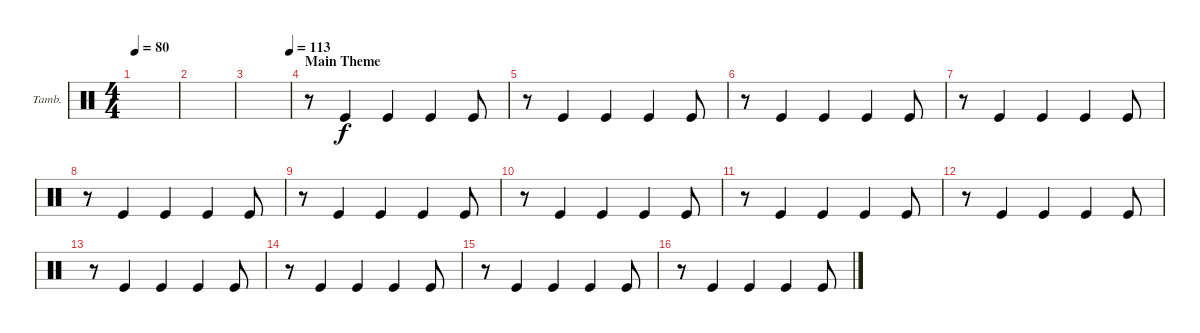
\defaultSystemsLayout 4
\bracketExtendMode groupsimilarinstruments
\firstSystemTrackNameOrientation horizontal
\otherSystemsTrackNameOrientation horizontal
\track ("Tambourine" "Tamb.") {instrument percussion}
\staff {score}
\articulation defaults
\ts (4 4)
\tempo 80
\clef neutral
\scale
0.333333
\ks c
|
\scale
0.333333 |
\tempo (113 1)
\scale
0.333333 |
\section ("" "Main Theme")
\scale
0.333333 r.8 "Kick (hit)".4 "Kick (hit)".4 "Kick (hit)".4 "Kick (hit)".8 |
\scale
0.333333 r.8 "Kick (hit)".4 "Kick (hit)".4 "Kick (hit)".4 "Kick (hit)".8 |
\scale
0.333333 r.8 "Kick (hit)".4 "Kick (hit)".4 "Kick (hit)".4 "Kick (hit)".8 |
\scale
0.333333 r.8 "Kick (hit)".4 "Kick (hit)".4 "Kick (hit)".4 "Kick (hit)".8 |
\scale
0.333333 r.8 "Kick (hit)".4 "Kick (hit)".4 "Kick (hit)".4 "Kick (hit)".8 |
\scale
0.333333 r.8 "Kick (hit)".4 "Kick (hit)".4 "Kick (hit)".4 "Kick (hit)".8 |
\scale
0.333333 r.8 "Kick (hit)".4 "Kick (hit)".4 "Kick (hit)".4 "Kick (hit)".8 |
\scale
0.333333 r.8 "Kick (hit)".4 "Kick (hit)".4 "Kick (hit)".4 "Kick (hit)".8 |
\scale
0.333333 r.8 "Kick (hit)".4 "Kick (hit)".4 "Kick (hit)".4 "Kick (hit)".8 |
\scale
0.333333 r.8 "Kick (hit)".4 "Kick (hit)".4 "Kick (hit)".4 "Kick (hit)".8 |
\scale
0.333333 r.8 "Kick (hit)".4 "Kick (hit)".4 "Kick (hit)".4 "Kick (hit)".8 |
\scale
0.333333 r.8 "Kick (hit)".4 "Kick (hit)".4 "Kick (hit)".4 "Kick (hit)".8 |
\scale
0.333333 r.8 "Kick (hit)".4 "Kick (hit)".4 "Kick (hit)".4 "Kick (hit)".8
